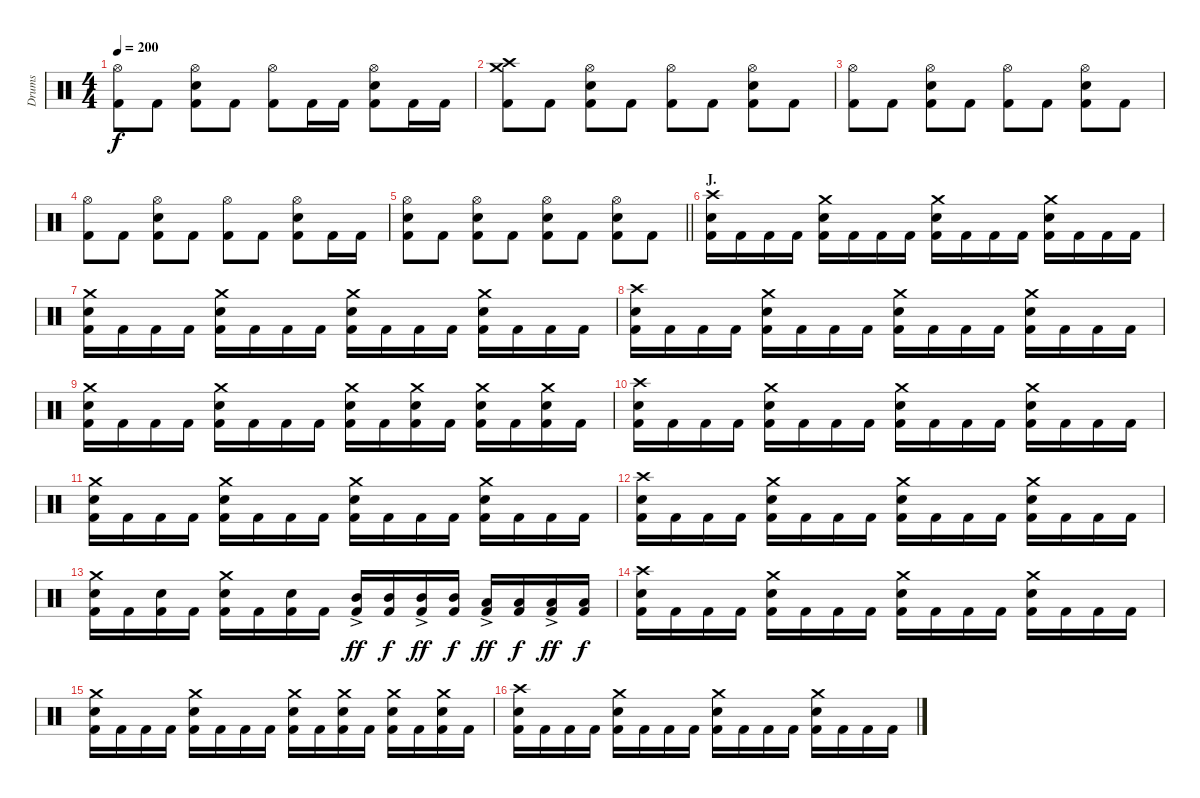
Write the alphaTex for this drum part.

\track ("Drums" "Drums") {instrument percussion}
\staff {score}
\articulation defaults
\ts (4 4)
\tempo 200
\clef neutral
\ks c
("Hi-Hat (open)" "Kick (hit) 2").8{dy f} "Kick (hit) 2".8 ("Hi-Hat (open)" "Electric Snare (hit)" "Kick (hit) 2").8 "Kick (hit) 2".8 ("Hi-Hat (open)" "Kick (hit) 2").8 "Kick (hit) 2".16 "Kick (hit) 2".16 ("Hi-Hat (open)" "Electric Snare (hit)" "Kick (hit) 2").8 "Kick (hit) 2".16 "Kick (hit) 2".16 |
("Crash medium (hit)" "Crash high (hit)" "Kick (hit) 2").8 "Kick (hit) 2".8 ("Hi-Hat (open)" "Electric Snare (hit)" "Kick (hit) 2").8 "Kick (hit) 2".8 ("Hi-Hat (open)" "Kick (hit) 2").8 "Kick (hit) 2".8 ("Hi-Hat (open)" "Electric Snare (hit)" "Kick (hit) 2").8 "Kick (hit) 2".8 |
("Hi-Hat (open)" "Kick (hit) 2").8 "Kick (hit) 2".8 ("Hi-Hat (open)" "Electric Snare (hit)" "Kick (hit) 2").8 "Kick (hit) 2".8 ("Hi-Hat (open)" "Kick (hit) 2").8 "Kick (hit) 2".8 ("Hi-Hat (open)" "Electric Snare (hit)" "Kick (hit) 2").8 "Kick (hit) 2".8 |
("Hi-Hat (open)" "Kick (hit) 2").8 "Kick (hit) 2".8 ("Hi-Hat (open)" "Electric Snare (hit)" "Kick (hit) 2").8 "Kick (hit) 2".8 ("Hi-Hat (open)" "Kick (hit) 2").8 "Kick (hit) 2".8 ("Hi-Hat (open)" "Electric Snare (hit)" "Kick (hit) 2").8 "Kick (hit) 2".16 "Kick (hit) 2".16 |
\barLineRight lightlight
("Hi-Hat (open)" "Electric Snare (hit)" "Kick (hit) 2").8 "Kick (hit) 2".8 ("Hi-Hat (open)" "Electric Snare (hit)" "Kick (hit) 2").8 "Kick (hit) 2".8 ("Hi-Hat (open)" "Electric Snare (hit)" "Kick (hit) 2").8 "Kick (hit) 2".8 ("Hi-Hat (open)" "Electric Snare (hit)" "Kick (hit) 2").8 "Kick (hit) 2".8 |
\section ("" "J.")
("Crash high (hit)" "Electric Snare (hit)" "Kick (hit) 2").16 "Kick (hit) 2".16 "Kick (hit) 2".16 "Kick (hit) 2".16 ("Crash medium (hit)" "Electric Snare (hit)" "Kick (hit) 2").16 "Kick (hit) 2".16 "Kick (hit) 2".16 "Kick (hit) 2".16 ("Crash medium (hit)" "Electric Snare (hit)" "Kick (hit) 2").16 "Kick (hit) 2".16 "Kick (hit) 2".16 "Kick (hit) 2".16 ("Crash medium (hit)" "Electric Snare (hit)" "Kick (hit) 2").16 "Kick (hit) 2".16 "Kick (hit) 2".16 "Kick (hit) 2".16 |
("Crash medium (hit)" "Electric Snare (hit)" "Kick (hit) 2").16 "Kick (hit) 2".16 "Kick (hit) 2".16 "Kick (hit) 2".16 ("Crash medium (hit)" "Electric Snare (hit)" "Kick (hit) 2").16 "Kick (hit) 2".16 "Kick (hit) 2".16 "Kick (hit) 2".16 ("Crash medium (hit)" "Electric Snare (hit)" "Kick (hit) 2").16 "Kick (hit) 2".16 "Kick (hit) 2".16 "Kick (hit) 2".16 ("Crash medium (hit)" "Electric Snare (hit)" "Kick (hit) 2").16 "Kick (hit) 2".16 "Kick (hit) 2".16 "Kick (hit) 2".16 |
("Crash high (hit)" "Electric Snare (hit)" "Kick (hit) 2").16 "Kick (hit) 2".16 "Kick (hit) 2".16 "Kick (hit) 2".16 ("Crash medium (hit)" "Electric Snare (hit)" "Kick (hit) 2").16 "Kick (hit) 2".16 "Kick (hit) 2".16 "Kick (hit) 2".16 ("Crash medium (hit)" "Electric Snare (hit)" "Kick (hit) 2").16 "Kick (hit) 2".16 "Kick (hit) 2".16 "Kick (hit) 2".16 ("Crash medium (hit)" "Electric Snare (hit)" "Kick (hit) 2").16 "Kick (hit) 2".16 "Kick (hit) 2".16 "Kick (hit) 2".16 |
("Crash medium (hit)" "Electric Snare (hit)" "Kick (hit) 2").16 "Kick (hit) 2".16 "Kick (hit) 2".16 "Kick (hit) 2".16 ("Crash medium (hit)" "Electric Snare (hit)" "Kick (hit) 2").16 "Kick (hit) 2".16 "Kick (hit) 2".16 "Kick (hit) 2".16 ("Crash medium (hit)" "Electric Snare (hit)" "Kick (hit) 2").16 "Kick (hit) 2".16 ("Crash medium (hit)" "Electric Snare (hit)" "Kick (hit) 2").16 "Kick (hit) 2".16 ("Crash medium (hit)" "Electric Snare (hit)" "Kick (hit) 2").16 "Kick (hit) 2".16 ("Crash medium (hit)" "Electric Snare (hit)" "Kick (hit) 2").16 "Kick (hit) 2".16 |
("Crash high (hit)" "Electric Snare (hit)" "Kick (hit) 2").16 "Kick (hit) 2".16 "Kick (hit) 2".16 "Kick (hit) 2".16 ("Crash medium (hit)" "Electric Snare (hit)" "Kick (hit) 2").16 "Kick (hit) 2".16 "Kick (hit) 2".16 "Kick (hit) 2".16 ("Crash medium (hit)" "Electric Snare (hit)" "Kick (hit) 2").16 "Kick (hit) 2".16 "Kick (hit) 2".16 "Kick (hit) 2".16 ("Crash medium (hit)" "Electric Snare (hit)" "Kick (hit) 2").16 "Kick (hit) 2".16 "Kick (hit) 2".16 "Kick (hit) 2".16 |
("Crash medium (hit)" "Electric Snare (hit)" "Kick (hit) 2").16 "Kick (hit) 2".16 "Kick (hit) 2".16 "Kick (hit) 2".16 ("Crash medium (hit)" "Electric Snare (hit)" "Kick (hit) 2").16 "Kick (hit) 2".16 "Kick (hit) 2".16 "Kick (hit) 2".16 ("Crash medium (hit)" "Electric Snare (hit)" "Kick (hit) 2").16 "Kick (hit) 2".16 "Kick (hit) 2".16 "Kick (hit) 2".16 ("Crash medium (hit)" "Electric Snare (hit)" "Kick (hit) 2").16 "Kick (hit) 2".16 "Kick (hit) 2".16 "Kick (hit) 2".16 |
("Crash high (hit)" "Electric Snare (hit)" "Kick (hit) 2").16 "Kick (hit) 2".16 "Kick (hit) 2".16 "Kick (hit) 2".16 ("Crash medium (hit)" "Electric Snare (hit)" "Kick (hit) 2").16 "Kick (hit) 2".16 "Kick (hit) 2".16 "Kick (hit) 2".16 ("Crash medium (hit)" "Electric Snare (hit)" "Kick (hit) 2").16 "Kick (hit) 2".16 "Kick (hit) 2".16 "Kick (hit) 2".16 ("Crash medium (hit)" "Electric Snare (hit)" "Kick (hit) 2").16 "Kick (hit) 2".16 "Kick (hit) 2".16 "Kick (hit) 2".16 |
("Crash medium (hit)" "Electric Snare (hit)" "Kick (hit) 2").16 "Kick (hit) 2".16 ("Electric Snare (hit)" "Kick (hit) 2").16 "Kick (hit) 2".16 ("Crash medium (hit)" "Electric Snare (hit)" "Kick (hit) 2").16 "Kick (hit) 2".16 ("Electric Snare (hit)" "Kick (hit) 2").16 "Kick (hit) 2".16 ("Mid Tom (hit)"{ac} "Kick (hit) 2").16{dy ff} ("Mid Tom (hit)" "Kick (hit) 2").16{dy f} ("Mid Tom (hit)"{ac} "Kick (hit) 2").16{dy ff} ("Mid Tom (hit)" "Kick (hit) 2").16{dy f} ("Low Tom (hit)"{ac} "Kick (hit) 2").16{dy ff} ("Low Tom (hit)" "Kick (hit) 2").16{dy f} ("Low Tom (hit)"{ac} "Kick (hit) 2").16{dy ff} ("Low Tom (hit)" "Kick (hit) 2").16{dy f} |
("Crash high (hit)" "Electric Snare (hit)" "Kick (hit) 2").16 "Kick (hit) 2".16 "Kick (hit) 2".16 "Kick (hit) 2".16 ("Crash medium (hit)" "Electric Snare (hit)" "Kick (hit) 2").16 "Kick (hit) 2".16 "Kick (hit) 2".16 "Kick (hit) 2".16 ("Crash medium (hit)" "Electric Snare (hit)" "Kick (hit) 2").16 "Kick (hit) 2".16 "Kick (hit) 2".16 "Kick (hit) 2".16 ("Crash medium (hit)" "Electric Snare (hit)" "Kick (hit) 2").16 "Kick (hit) 2".16 "Kick (hit) 2".16 "Kick (hit) 2".16 |
("Crash medium (hit)" "Electric Snare (hit)" "Kick (hit) 2").16 "Kick (hit) 2".16 "Kick (hit) 2".16 "Kick (hit) 2".16 ("Crash medium (hit)" "Electric Snare (hit)" "Kick (hit) 2").16 "Kick (hit) 2".16 "Kick (hit) 2".16 "Kick (hit) 2".16 ("Crash medium (hit)" "Electric Snare (hit)" "Kick (hit) 2").16 "Kick (hit) 2".16 ("Crash medium (hit)" "Electric Snare (hit)" "Kick (hit) 2").16 "Kick (hit) 2".16 ("Crash medium (hit)" "Electric Snare (hit)" "Kick (hit) 2").16 "Kick (hit) 2".16 ("Crash medium (hit)" "Electric Snare (hit)" "Kick (hit) 2").16 "Kick (hit) 2".16 |
("Crash high (hit)" "Electric Snare (hit)" "Kick (hit) 2").16 "Kick (hit) 2".16 "Kick (hit) 2".16 "Kick (hit) 2".16 ("Crash medium (hit)" "Electric Snare (hit)" "Kick (hit) 2").16 "Kick (hit) 2".16 "Kick (hit) 2".16 "Kick (hit) 2".16 ("Crash medium (hit)" "Electric Snare (hit)" "Kick (hit) 2").16 "Kick (hit) 2".16 "Kick (hit) 2".16 "Kick (hit) 2".16 ("Crash medium (hit)" "Electric Snare (hit)" "Kick (hit) 2").16 "Kick (hit) 2".16 "Kick (hit) 2".16 "Kick (hit) 2".16
